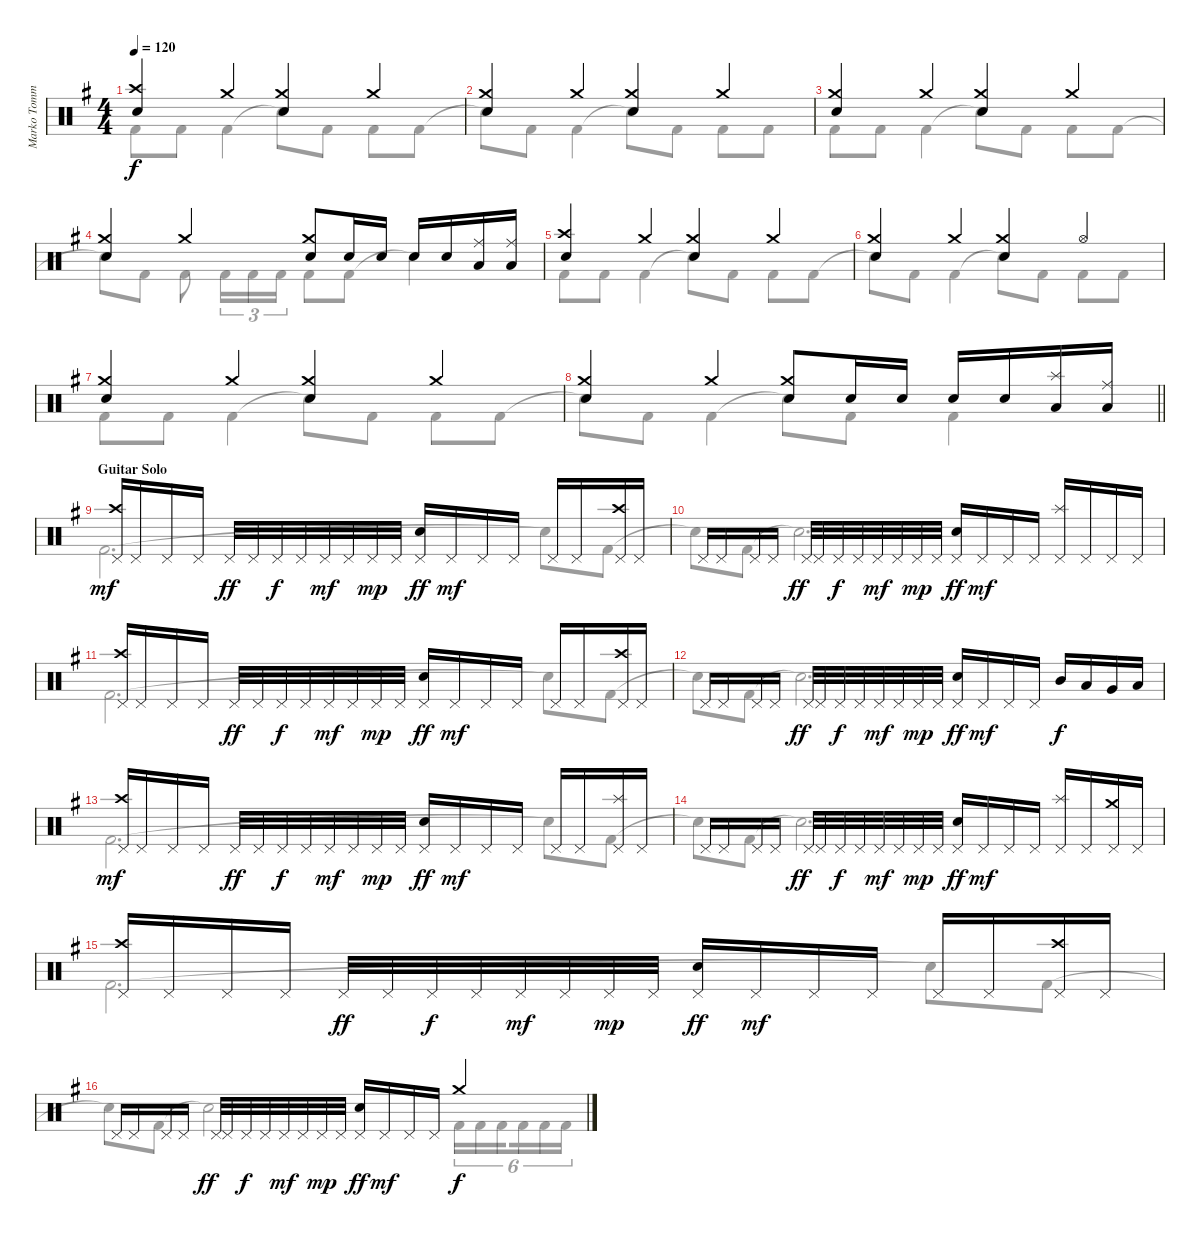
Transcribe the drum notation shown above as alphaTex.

\track ("Marko Tommila (drums)" "Marko Tomm") {instrument percussion}
\staff {score}
\articulation defaults
\voice
\ts (4 4)
\tempo 120
\clef neutral
\ks eminor
("Crash high (hit)" "Electric Snare (hit)").4{dy f} "Crash medium (hit)".4 ("Crash medium (hit)" "Electric Snare (hit)").4 "Crash medium (hit)".4 |
("Crash medium (hit)" "Electric Snare (hit)").4 "Crash medium (hit)".4 ("Crash medium (hit)" "Electric Snare (hit)").4 "Crash medium (hit)".4 |
("Crash medium (hit)" "Electric Snare (hit)").4 "Crash medium (hit)".4 ("Crash medium (hit)" "Electric Snare (hit)").4 "Crash medium (hit)".4 |
("Crash medium (hit)" "Electric Snare (hit)").4 "Crash medium (hit)".4 ("Crash medium (hit)" "Electric Snare (hit)").8 "Electric Snare (hit)".16 "Electric Snare (hit)".16 "Electric Snare (hit)".16 "Electric Snare (hit)".16 ("Low Tom (hit)" "Ride (middle)").16 ("Low Tom (hit)" "Ride (middle)").16 |
("Crash high (hit)" "Electric Snare (hit)").4 "Crash medium (hit)".4 ("Crash medium (hit)" "Electric Snare (hit)").4 "Crash medium (hit)".4 |
("Crash medium (hit)" "Electric Snare (hit)").4 "Crash medium (hit)".4 ("Crash medium (hit)" "Electric Snare (hit)").4 "Hi-Hat (open)".4 |
("Crash medium (hit)" "Electric Snare (hit)").4 "Crash medium (hit)".4 ("Crash medium (hit)" "Electric Snare (hit)").4 "Crash medium (hit)".4 |
\barLineRight lightlight
("Crash medium (hit)" "Electric Snare (hit)").4 "Crash medium (hit)".4 ("Crash medium (hit)" "Electric Snare (hit)").8 "Electric Snare (hit)".16 "Electric Snare (hit)".16 "Electric Snare (hit)".16 "Electric Snare (hit)".16 ("Low Tom (hit)" "Splash (hit)").16 ("Low Tom (hit)" "Ride (middle)").16 |
\section ("" "Guitar Solo")
("Pedal Hi-Hat (hit)" "Crash high (hit)").16{dy mf} "Pedal Hi-Hat (hit)".16 "Pedal Hi-Hat (hit)".16 "Pedal Hi-Hat (hit)".16 "Pedal Hi-Hat (hit)".32{dy ff} "Pedal Hi-Hat (hit)".32 "Pedal Hi-Hat (hit)".32{dy f} "Pedal Hi-Hat (hit)".32 "Pedal Hi-Hat (hit)".32{dy mf} "Pedal Hi-Hat (hit)".32 "Pedal Hi-Hat (hit)".32{dy mp} "Pedal Hi-Hat (hit)".32 ("Pedal Hi-Hat (hit)" "Electric Snare (hit)").16{dy ff} "Pedal Hi-Hat (hit)".16{dy mf} "Pedal Hi-Hat (hit)".16 "Pedal Hi-Hat (hit)".16 "Pedal Hi-Hat (hit)".16 "Pedal Hi-Hat (hit)".16 ("Pedal Hi-Hat (hit)" "Crash high (hit)").16 "Pedal Hi-Hat (hit)".16 |
"Pedal Hi-Hat (hit)".16 "Pedal Hi-Hat (hit)".16 "Pedal Hi-Hat (hit)".16 "Pedal Hi-Hat (hit)".16 "Pedal Hi-Hat (hit)".32{dy ff} "Pedal Hi-Hat (hit)".32 "Pedal Hi-Hat (hit)".32{dy f} "Pedal Hi-Hat (hit)".32 "Pedal Hi-Hat (hit)".32{dy mf} "Pedal Hi-Hat (hit)".32 "Pedal Hi-Hat (hit)".32{dy mp} "Pedal Hi-Hat (hit)".32 ("Pedal Hi-Hat (hit)" "Electric Snare (hit)").16{dy ff} "Pedal Hi-Hat (hit)".16{dy mf} "Pedal Hi-Hat (hit)".16 "Pedal Hi-Hat (hit)".16 ("Pedal Hi-Hat (hit)" "Splash (hit)").16 "Pedal Hi-Hat (hit)".16 "Pedal Hi-Hat (hit)".16 "Pedal Hi-Hat (hit)".16 |
("Pedal Hi-Hat (hit)" "Crash high (hit)").16 "Pedal Hi-Hat (hit)".16 "Pedal Hi-Hat (hit)".16 "Pedal Hi-Hat (hit)".16 "Pedal Hi-Hat (hit)".32{dy ff} "Pedal Hi-Hat (hit)".32 "Pedal Hi-Hat (hit)".32{dy f} "Pedal Hi-Hat (hit)".32 "Pedal Hi-Hat (hit)".32{dy mf} "Pedal Hi-Hat (hit)".32 "Pedal Hi-Hat (hit)".32{dy mp} "Pedal Hi-Hat (hit)".32 ("Pedal Hi-Hat (hit)" "Electric Snare (hit)").16{dy ff} "Pedal Hi-Hat (hit)".16{dy mf} "Pedal Hi-Hat (hit)".16 "Pedal Hi-Hat (hit)".16 "Pedal Hi-Hat (hit)".16 "Pedal Hi-Hat (hit)".16 ("Pedal Hi-Hat (hit)" "Crash high (hit)").16 "Pedal Hi-Hat (hit)".16 |
"Pedal Hi-Hat (hit)".16 "Pedal Hi-Hat (hit)".16 "Pedal Hi-Hat (hit)".16 "Pedal Hi-Hat (hit)".16 "Pedal Hi-Hat (hit)".32{dy ff} "Pedal Hi-Hat (hit)".32 "Pedal Hi-Hat (hit)".32{dy f} "Pedal Hi-Hat (hit)".32 "Pedal Hi-Hat (hit)".32{dy mf} "Pedal Hi-Hat (hit)".32 "Pedal Hi-Hat (hit)".32{dy mp} "Pedal Hi-Hat (hit)".32 ("Pedal Hi-Hat (hit)" "Electric Snare (hit)").16{dy ff} "Pedal Hi-Hat (hit)".16{dy mf} "Pedal Hi-Hat (hit)".16 "Pedal Hi-Hat (hit)".16 "Mid Tom (hit)".16{dy f} "Low Tom (hit)".16 "Very Low Tom (hit)".16 "Low Floor Tom (hit)".16 |
("Pedal Hi-Hat (hit)" "Crash high (hit)").16{dy mf} "Pedal Hi-Hat (hit)".16 "Pedal Hi-Hat (hit)".16 "Pedal Hi-Hat (hit)".16 "Pedal Hi-Hat (hit)".32{dy ff} "Pedal Hi-Hat (hit)".32 "Pedal Hi-Hat (hit)".32{dy f} "Pedal Hi-Hat (hit)".32 "Pedal Hi-Hat (hit)".32{dy mf} "Pedal Hi-Hat (hit)".32 "Pedal Hi-Hat (hit)".32{dy mp} "Pedal Hi-Hat (hit)".32 ("Pedal Hi-Hat (hit)" "Electric Snare (hit)").16{dy ff} "Pedal Hi-Hat (hit)".16{dy mf} "Pedal Hi-Hat (hit)".16 "Pedal Hi-Hat (hit)".16 "Pedal Hi-Hat (hit)".16 "Pedal Hi-Hat (hit)".16 ("Pedal Hi-Hat (hit)" "Splash (hit)").16 "Pedal Hi-Hat (hit)".16 |
"Pedal Hi-Hat (hit)".16 "Pedal Hi-Hat (hit)".16 "Pedal Hi-Hat (hit)".16 "Pedal Hi-Hat (hit)".16 "Pedal Hi-Hat (hit)".32{dy ff} "Pedal Hi-Hat (hit)".32 "Pedal Hi-Hat (hit)".32{dy f} "Pedal Hi-Hat (hit)".32 "Pedal Hi-Hat (hit)".32{dy mf} "Pedal Hi-Hat (hit)".32 "Pedal Hi-Hat (hit)".32{dy mp} "Pedal Hi-Hat (hit)".32 ("Pedal Hi-Hat (hit)" "Electric Snare (hit)").16{dy ff} "Pedal Hi-Hat (hit)".16{dy mf} "Pedal Hi-Hat (hit)".16 "Pedal Hi-Hat (hit)".16 ("Pedal Hi-Hat (hit)" "Splash (hit)").16 "Pedal Hi-Hat (hit)".16 ("Pedal Hi-Hat (hit)" "Crash medium (hit)").16 "Pedal Hi-Hat (hit)".16 |
("Pedal Hi-Hat (hit)" "Crash high (hit)").16 "Pedal Hi-Hat (hit)".16 "Pedal Hi-Hat (hit)".16 "Pedal Hi-Hat (hit)".16 "Pedal Hi-Hat (hit)".32{dy ff} "Pedal Hi-Hat (hit)".32 "Pedal Hi-Hat (hit)".32{dy f} "Pedal Hi-Hat (hit)".32 "Pedal Hi-Hat (hit)".32{dy mf} "Pedal Hi-Hat (hit)".32 "Pedal Hi-Hat (hit)".32{dy mp} "Pedal Hi-Hat (hit)".32 ("Pedal Hi-Hat (hit)" "Electric Snare (hit)").16{dy ff} "Pedal Hi-Hat (hit)".16{dy mf} "Pedal Hi-Hat (hit)".16 "Pedal Hi-Hat (hit)".16 "Pedal Hi-Hat (hit)".16 "Pedal Hi-Hat (hit)".16 ("Pedal Hi-Hat (hit)" "Crash high (hit)").16 "Pedal Hi-Hat (hit)".16 |
"Pedal Hi-Hat (hit)".16 "Pedal Hi-Hat (hit)".16 "Pedal Hi-Hat (hit)".16 "Pedal Hi-Hat (hit)".16 "Pedal Hi-Hat (hit)".32{dy ff} "Pedal Hi-Hat (hit)".32 "Pedal Hi-Hat (hit)".32{dy f} "Pedal Hi-Hat (hit)".32 "Pedal Hi-Hat (hit)".32{dy mf} "Pedal Hi-Hat (hit)".32 "Pedal Hi-Hat (hit)".32{dy mp} "Pedal Hi-Hat (hit)".32 ("Pedal Hi-Hat (hit)" "Electric Snare (hit)").16{dy ff} "Pedal Hi-Hat (hit)".16{dy mf} "Pedal Hi-Hat (hit)".16 "Pedal Hi-Hat (hit)".16 "Crash medium (hit)".4{dy f}
\voice
\clef neutral
\ottava regular
\simile none
\ks eminor "Kick (hit) 2".8{dy f} "Kick (hit) 2".8 "Kick (hit) 2".4 "Snare (hit)"{t}.8 "Kick (hit) 2".8 "Kick (hit) 2".8 "Kick (hit) 2".8
|
"Snare (hit)"{t}.8 "Kick (hit) 2".8 "Kick (hit) 2".4 "Snare (hit)"{t}.8 "Kick (hit) 2".8 "Kick (hit) 2".8 "Kick (hit) 2".8 |
"Kick (hit) 2".8 "Kick (hit) 2".8 "Kick (hit) 2".4 "Snare (hit)"{t}.8 "Kick (hit) 2".8 "Kick (hit) 2".8 "Kick (hit) 2".8 |
"Snare (hit)"{t}.8 "Kick (hit) 2".8 "Kick (hit) 2".8 "Kick (hit) 2".16{tu (3 2)} "Kick (hit) 2".16{tu (3 2)} "Kick (hit) 2".16{tu (3 2)} "Kick (hit) 2".8 "Kick (hit) 2".8 "Snare (hit)"{t}.4 |
"Kick (hit) 2".8 "Kick (hit) 2".8 "Kick (hit) 2".4 "Snare (hit)"{t}.8 "Kick (hit) 2".8 "Kick (hit) 2".8 "Kick (hit) 2".8 |
"Snare (hit)"{t}.8 "Kick (hit) 2".8 "Kick (hit) 2".4 "Snare (hit)"{t}.8 "Kick (hit) 2".8 "Kick (hit) 2".8 "Kick (hit) 2".8 |
"Kick (hit) 2".8 "Kick (hit) 2".8 "Kick (hit) 2".4 "Snare (hit)"{t}.8 "Kick (hit) 2".8 "Kick (hit) 2".8 "Kick (hit) 2".8 |
\barLineRight lightlight "Snare (hit)"{t}.8 "Kick (hit) 2".8 "Kick (hit) 2".4 "Snare (hit)"{t}.8 "Kick (hit) 2".8 "Kick (hit) 2".4
|
"Kick (hit) 2".2{d} "Snare (hit)"{t}.8 "Kick (hit) 2".8 |
"Snare (hit)"{t}.8 "Kick (hit) 2".8 "Snare (hit)"{t}.2{d} |
"Kick (hit) 2".2{d} "Snare (hit)"{t}.8 "Kick (hit) 2".8 |
"Snare (hit)"{t}.8 "Kick (hit) 2".8 "Snare (hit)"{t}.2{d} |
"Kick (hit) 2".2{d} "Snare (hit)"{t}.8 "Kick (hit) 2".8 |
"Snare (hit)"{t}.8 "Kick (hit) 2".8 "Snare (hit)"{t}.2{d} |
"Kick (hit) 2".2{d} "Snare (hit)"{t}.8 "Kick (hit) 2".8 |
"Snare (hit)"{t}.8 "Kick (hit) 2".8 "Snare (hit)"{t}.2 "Kick (hit) 2".16{tu (6 4)} "Kick (hit) 2".16{tu (6 4)} "Kick (hit) 2".16{tu (6 4) beam splitsecondary} "Kick (hit) 2".16{tu (6 4)} "Kick (hit) 2".16{tu (6 4)} "Kick (hit) 2".16{tu (6 4)}
